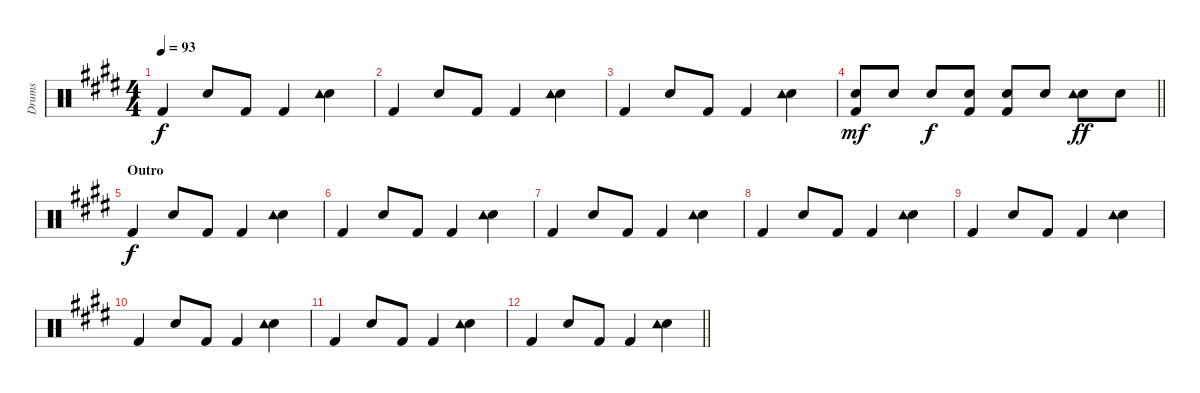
\track ("Drums" "Drums") {instrument percussion}
\staff {score}
\articulation defaults
\ts (4 4)
\tempo 93
\clef neutral
\ks c#minor "Kick (hit) 2".4{dy f} "Electric Snare (hit)".8 "Kick (hit) 2".8 "Kick (hit) 2".4
("Electric Snare (hit)" "Tambourine (hit)").4 |
"Kick (hit) 2".4 "Electric Snare (hit)".8 "Kick (hit) 2".8 "Kick (hit) 2".4 ("Electric Snare (hit)" "Tambourine (hit)").4 |
"Kick (hit) 2".4 "Electric Snare (hit)".8 "Kick (hit) 2".8 "Kick (hit) 2".4 ("Electric Snare (hit)" "Tambourine (hit)").4 |
\barLineRight lightlight
("Electric Snare (hit)" "Kick (hit) 2").8{dy mf} "Electric Snare (hit)".8 "Electric Snare (hit)".8{dy f} ("Electric Snare (hit)" "Kick (hit) 2").8 ("Electric Snare (hit)" "Kick (hit) 2").8 "Electric Snare (hit)".8 ("Electric Snare (hit)" "Tambourine (hit)").8{dy ff} "Electric Snare (hit)".8 |
\section ("" "Outro")
"Kick (hit) 2".4{dy f} "Electric Snare (hit)".8 "Kick (hit) 2".8 "Kick (hit) 2".4 ("Electric Snare (hit)" "Tambourine (hit)").4 |
"Kick (hit) 2".4 "Electric Snare (hit)".8 "Kick (hit) 2".8 "Kick (hit) 2".4 ("Electric Snare (hit)" "Tambourine (hit)").4 |
"Kick (hit) 2".4 "Electric Snare (hit)".8 "Kick (hit) 2".8 "Kick (hit) 2".4 ("Electric Snare (hit)" "Tambourine (hit)").4 |
"Kick (hit) 2".4{volume 0} "Electric Snare (hit)".8 "Kick (hit) 2".8 "Kick (hit) 2".4 ("Electric Snare (hit)" "Tambourine (hit)").4 |
"Kick (hit) 2".4 "Electric Snare (hit)".8 "Kick (hit) 2".8 "Kick (hit) 2".4 ("Electric Snare (hit)" "Tambourine (hit)").4 |
"Kick (hit) 2".4 "Electric Snare (hit)".8 "Kick (hit) 2".8 "Kick (hit) 2".4 ("Electric Snare (hit)" "Tambourine (hit)").4 |
"Kick (hit) 2".4 "Electric Snare (hit)".8 "Kick (hit) 2".8 "Kick (hit) 2".4 ("Electric Snare (hit)" "Tambourine (hit)").4 |
\barLineRight lightlight "Kick (hit) 2".4 "Electric Snare (hit)".8 "Kick (hit) 2".8 "Kick (hit) 2".4
("Electric Snare (hit)" "Tambourine (hit)").4
